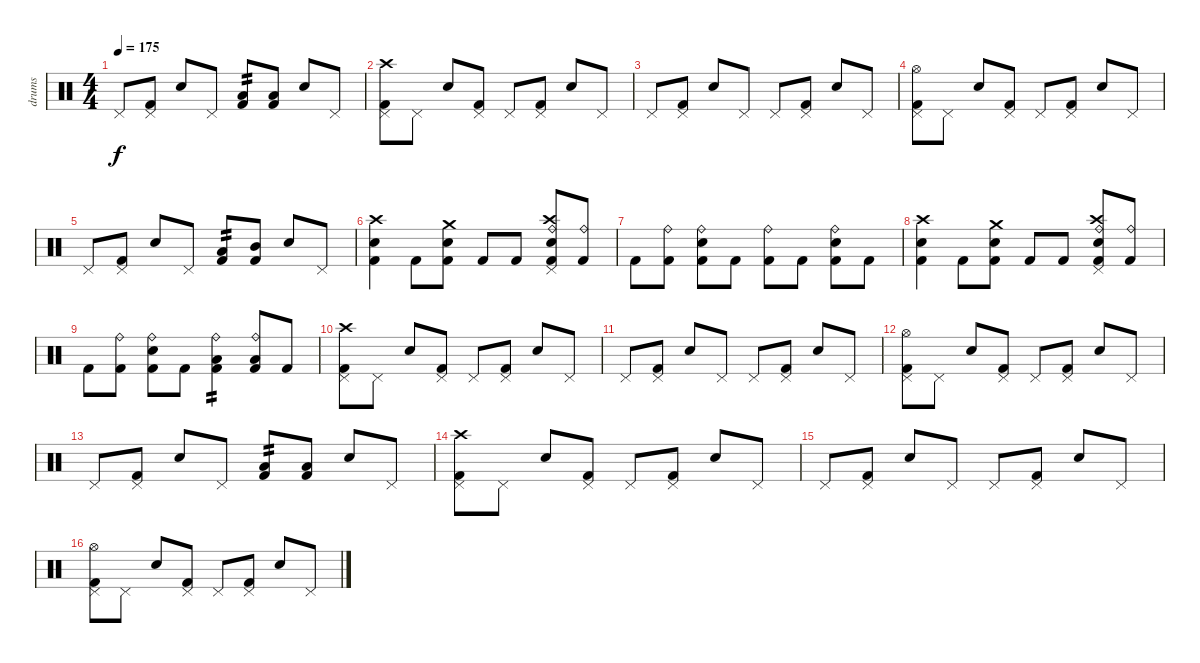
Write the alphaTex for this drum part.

\track ("drums" "drums") {instrument percussion}
\staff {score}
\articulation defaults
\ts (4 4)
\tempo 175
\clef neutral
\ks c "Pedal Hi-Hat (hit)".8{dy f}
("Pedal Hi-Hat (hit)" "Kick (hit) 2").8 "Electric Snare (hit)".8 "Pedal Hi-Hat (hit)".8 ("Low Tom (hit)" "Kick (hit) 2").8{tp 2} ("Low Tom (hit)" "Kick (hit) 2").8 "Electric Snare (hit)".8 "Pedal Hi-Hat (hit)".8 |
("Crash high (hit)" "Pedal Hi-Hat (hit)" "Kick (hit) 2").8 "Pedal Hi-Hat (hit)".8 "Electric Snare (hit)".8 ("Pedal Hi-Hat (hit)" "Kick (hit) 2").8 "Pedal Hi-Hat (hit)".8 ("Pedal Hi-Hat (hit)" "Kick (hit) 2").8 "Electric Snare (hit)".8 "Pedal Hi-Hat (hit)".8 |
"Pedal Hi-Hat (hit)".8 ("Pedal Hi-Hat (hit)" "Kick (hit) 2").8 "Electric Snare (hit)".8 "Pedal Hi-Hat (hit)".8 "Pedal Hi-Hat (hit)".8 ("Pedal Hi-Hat (hit)" "Kick (hit) 2").8 "Electric Snare (hit)".8 "Pedal Hi-Hat (hit)".8 |
("Hi-Hat (open)" "Pedal Hi-Hat (hit)" "Kick (hit) 2").8 "Pedal Hi-Hat (hit)".8 "Electric Snare (hit)".8 ("Pedal Hi-Hat (hit)" "Kick (hit) 2").8 "Pedal Hi-Hat (hit)".8 ("Pedal Hi-Hat (hit)" "Kick (hit) 2").8 "Electric Snare (hit)".8 "Pedal Hi-Hat (hit)".8 |
"Pedal Hi-Hat (hit)".8 ("Pedal Hi-Hat (hit)" "Kick (hit) 2").8 "Electric Snare (hit)".8 "Pedal Hi-Hat (hit)".8 ("Low Tom (hit)" "Kick (hit) 2").8{tp 2} ("Mid Tom (hit)" "Kick (hit) 2").8 "Electric Snare (hit)".8 "Pedal Hi-Hat (hit)".8 |
("Crash high (hit)" "Electric Snare (hit)" "Kick (hit) 2").4 "Kick (hit) 2".8 ("Crash medium (hit)" "Electric Snare (hit)" "Kick (hit) 2").8 "Kick (hit) 2".8 "Kick (hit) 2".8 ("Ride (bell)" "Crash high (hit)" "Pedal Hi-Hat (hit)" "Electric Snare (hit)" "Kick (hit) 2").8 ("Ride (bell)" "Kick (hit) 2").8 |
"Kick (hit) 2".8 ("Ride (bell)" "Kick (hit) 2").8 ("Ride (bell)" "Electric Snare (hit)" "Kick (hit) 2").8 "Kick (hit) 2".8 ("Ride (bell)" "Kick (hit) 2").8 "Kick (hit) 2".8 ("Ride (bell)" "Electric Snare (hit)" "Kick (hit) 2").8 "Kick (hit) 2".8 |
("Crash high (hit)" "Electric Snare (hit)" "Kick (hit) 2").4 "Kick (hit) 2".8 ("Crash medium (hit)" "Electric Snare (hit)" "Kick (hit) 2").8 "Kick (hit) 2".8 "Kick (hit) 2".8 ("Ride (bell)" "Crash high (hit)" "Pedal Hi-Hat (hit)" "Electric Snare (hit)" "Kick (hit) 2").8 ("Ride (bell)" "Kick (hit) 2").8 |
"Kick (hit) 2".8 ("Ride (bell)" "Kick (hit) 2").8 ("Ride (bell)" "Electric Snare (hit)" "Kick (hit) 2").8 "Kick (hit) 2".8 ("Ride (bell)" "Low Tom (hit)" "Kick (hit) 2").4{tp 2} ("Ride (bell)" "Low Floor Tom (hit)" "Kick (hit) 2").8 "Kick (hit) 2".8 |
("Crash high (hit)" "Pedal Hi-Hat (hit)" "Kick (hit) 2").8 "Pedal Hi-Hat (hit)".8 "Electric Snare (hit)".8 ("Pedal Hi-Hat (hit)" "Kick (hit) 2").8 "Pedal Hi-Hat (hit)".8 ("Pedal Hi-Hat (hit)" "Kick (hit) 2").8 "Electric Snare (hit)".8 "Pedal Hi-Hat (hit)".8 |
"Pedal Hi-Hat (hit)".8 ("Pedal Hi-Hat (hit)" "Kick (hit) 2").8 "Electric Snare (hit)".8 "Pedal Hi-Hat (hit)".8 "Pedal Hi-Hat (hit)".8 ("Pedal Hi-Hat (hit)" "Kick (hit) 2").8 "Electric Snare (hit)".8 "Pedal Hi-Hat (hit)".8 |
("Hi-Hat (open)" "Pedal Hi-Hat (hit)" "Kick (hit) 2").8 "Pedal Hi-Hat (hit)".8 "Electric Snare (hit)".8 ("Pedal Hi-Hat (hit)" "Kick (hit) 2").8 "Pedal Hi-Hat (hit)".8 ("Pedal Hi-Hat (hit)" "Kick (hit) 2").8 "Electric Snare (hit)".8 "Pedal Hi-Hat (hit)".8 |
"Pedal Hi-Hat (hit)".8 ("Pedal Hi-Hat (hit)" "Kick (hit) 2").8 "Electric Snare (hit)".8 "Pedal Hi-Hat (hit)".8 ("Low Tom (hit)" "Kick (hit) 2").8{tp 2} ("Low Tom (hit)" "Kick (hit) 2").8 "Electric Snare (hit)".8 "Pedal Hi-Hat (hit)".8 |
("Crash high (hit)" "Pedal Hi-Hat (hit)" "Kick (hit) 2").8 "Pedal Hi-Hat (hit)".8 "Electric Snare (hit)".8 ("Pedal Hi-Hat (hit)" "Kick (hit) 2").8 "Pedal Hi-Hat (hit)".8 ("Pedal Hi-Hat (hit)" "Kick (hit) 2").8 "Electric Snare (hit)".8 "Pedal Hi-Hat (hit)".8 |
"Pedal Hi-Hat (hit)".8 ("Pedal Hi-Hat (hit)" "Kick (hit) 2").8 "Electric Snare (hit)".8 "Pedal Hi-Hat (hit)".8 "Pedal Hi-Hat (hit)".8 ("Pedal Hi-Hat (hit)" "Kick (hit) 2").8 "Electric Snare (hit)".8 "Pedal Hi-Hat (hit)".8 |
("Hi-Hat (open)" "Pedal Hi-Hat (hit)" "Kick (hit) 2").8 "Pedal Hi-Hat (hit)".8 "Electric Snare (hit)".8 ("Pedal Hi-Hat (hit)" "Kick (hit) 2").8 "Pedal Hi-Hat (hit)".8 ("Pedal Hi-Hat (hit)" "Kick (hit) 2").8 "Electric Snare (hit)".8 "Pedal Hi-Hat (hit)".8
